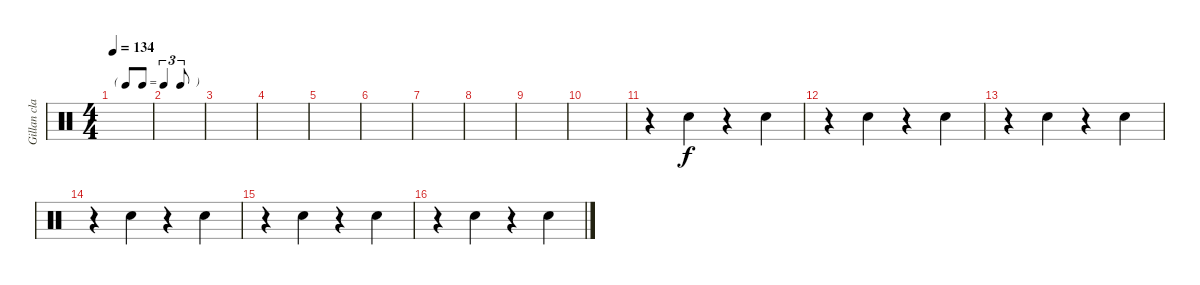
\track ("Gillan claps along" "Gillan cla") {instrument percussion}
\staff {score}
\articulation defaults
\ts (4 4)
\tf triplet8th
\tempo 134
\clef neutral
\ks c
|
|
|
|
|
|
|
|
|
|
r.4 "Hand Clap (hit)".4 r.4 "Hand Clap (hit)".4 |
r.4 "Hand Clap (hit)".4 r.4 "Hand Clap (hit)".4 |
r.4 "Hand Clap (hit)".4 r.4 "Hand Clap (hit)".4 |
r.4 "Hand Clap (hit)".4 r.4 "Hand Clap (hit)".4 |
r.4 "Hand Clap (hit)".4 r.4 "Hand Clap (hit)".4 |
r.4 "Hand Clap (hit)".4 r.4 "Hand Clap (hit)".4
